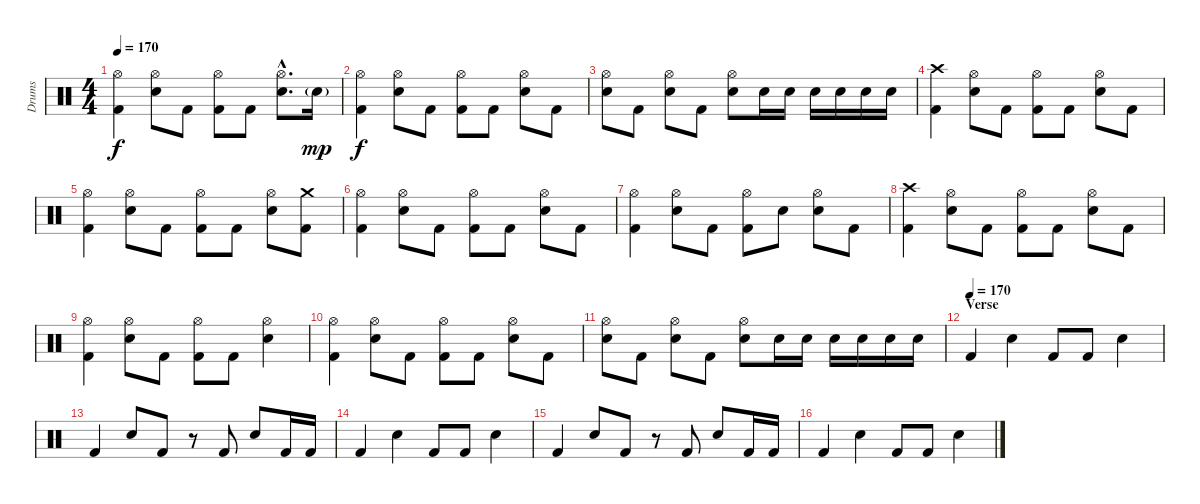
\track ("Drums" "Drums") {instrument percussion}
\staff {score}
\articulation defaults
\ts (4 4)
\tempo 170
\clef neutral
\ks c
("Hi-Hat (open)" "Kick (hit) 2").4{dy f} ("Hi-Hat (open)" "Electric Snare (hit)").8 "Kick (hit) 2".8 ("Hi-Hat (open)" "Kick (hit) 2").8 "Kick (hit) 2".8 ("Hi-Hat (open)"{hac} "Electric Snare (hit)"{hac}).8{d} "Electric Snare (hit)"{g}.16{dy mp} |
("Hi-Hat (open)" "Kick (hit) 2").4{dy f} ("Hi-Hat (open)" "Electric Snare (hit)").8 "Kick (hit) 2".8 ("Hi-Hat (open)" "Kick (hit) 2").8 "Kick (hit) 2".8 ("Hi-Hat (open)" "Electric Snare (hit)").8 "Kick (hit) 2".8 |
("Hi-Hat (open)" "Electric Snare (hit)").8 "Kick (hit) 2".8 ("Hi-Hat (open)" "Electric Snare (hit)").8 "Kick (hit) 2".8 ("Hi-Hat (open)" "Electric Snare (hit)").8 "Electric Snare (hit)".16 "Electric Snare (hit)".16 "Electric Snare (hit)".16 "Electric Snare (hit)".16 "Electric Snare (hit)".16 "Electric Snare (hit)".16 |
("Crash high (hit)" "Kick (hit) 2").4 ("Hi-Hat (open)" "Electric Snare (hit)").8 "Kick (hit) 2".8 ("Hi-Hat (open)" "Kick (hit) 2").8 "Kick (hit) 2".8 ("Hi-Hat (open)" "Electric Snare (hit)").8 "Kick (hit) 2".8 |
("Hi-Hat (open)" "Kick (hit) 2").4 ("Hi-Hat (open)" "Electric Snare (hit)").8 "Kick (hit) 2".8 ("Hi-Hat (open)" "Kick (hit) 2").8 "Kick (hit) 2".8 ("Hi-Hat (open)" "Electric Snare (hit)").8 ("Crash medium (hit)" "Kick (hit) 2").8 |
("Hi-Hat (open)" "Kick (hit) 2").4 ("Hi-Hat (open)" "Electric Snare (hit)").8 "Kick (hit) 2".8 ("Hi-Hat (open)" "Kick (hit) 2").8 "Kick (hit) 2".8 ("Hi-Hat (open)" "Electric Snare (hit)").8 "Kick (hit) 2".8 |
("Hi-Hat (open)" "Kick (hit) 2").4 ("Hi-Hat (open)" "Electric Snare (hit)").8 "Kick (hit) 2".8 ("Hi-Hat (open)" "Kick (hit) 2").8 "Electric Snare (hit)".8 ("Hi-Hat (open)" "Electric Snare (hit)").8 "Kick (hit) 2".8 |
("Crash high (hit)" "Kick (hit) 2").4 ("Hi-Hat (open)" "Electric Snare (hit)").8 "Kick (hit) 2".8 ("Hi-Hat (open)" "Kick (hit) 2").8 "Kick (hit) 2".8 ("Hi-Hat (open)" "Electric Snare (hit)").8 "Kick (hit) 2".8 |
("Hi-Hat (open)" "Kick (hit) 2").4 ("Hi-Hat (open)" "Electric Snare (hit)").8 "Kick (hit) 2".8 ("Hi-Hat (open)" "Kick (hit) 2").8 "Kick (hit) 2".8 ("Hi-Hat (open)" "Electric Snare (hit)").4 |
("Hi-Hat (open)" "Kick (hit) 2").4 ("Hi-Hat (open)" "Electric Snare (hit)").8 "Kick (hit) 2".8 ("Hi-Hat (open)" "Kick (hit) 2").8 "Kick (hit) 2".8 ("Hi-Hat (open)" "Electric Snare (hit)").8 "Kick (hit) 2".8 |
("Hi-Hat (open)" "Electric Snare (hit)").8 "Kick (hit) 2".8 ("Hi-Hat (open)" "Electric Snare (hit)").8 "Kick (hit) 2".8 ("Hi-Hat (open)" "Electric Snare (hit)").8 "Electric Snare (hit)".16 "Electric Snare (hit)".16 "Electric Snare (hit)".16 "Electric Snare (hit)".16 "Electric Snare (hit)".16 "Electric Snare (hit)".16 |
\section ("" "Verse")
\tempo (170)
"Kick (hit) 2".4 "Electric Snare (hit)".4 "Kick (hit) 2".8 "Kick (hit) 2".8 "Electric Snare (hit)".4 |
"Kick (hit) 2".4 "Electric Snare (hit)".8 "Kick (hit) 2".8 r.8 "Kick (hit) 2".8 "Electric Snare (hit)".8 "Kick (hit) 2".16 "Kick (hit) 2".16 |
"Kick (hit) 2".4 "Electric Snare (hit)".4 "Kick (hit) 2".8 "Kick (hit) 2".8 "Electric Snare (hit)".4 |
"Kick (hit) 2".4 "Electric Snare (hit)".8 "Kick (hit) 2".8 r.8 "Kick (hit) 2".8 "Electric Snare (hit)".8 "Kick (hit) 2".16 "Kick (hit) 2".16 |
"Kick (hit) 2".4 "Electric Snare (hit)".4 "Kick (hit) 2".8 "Kick (hit) 2".8 "Electric Snare (hit)".4
